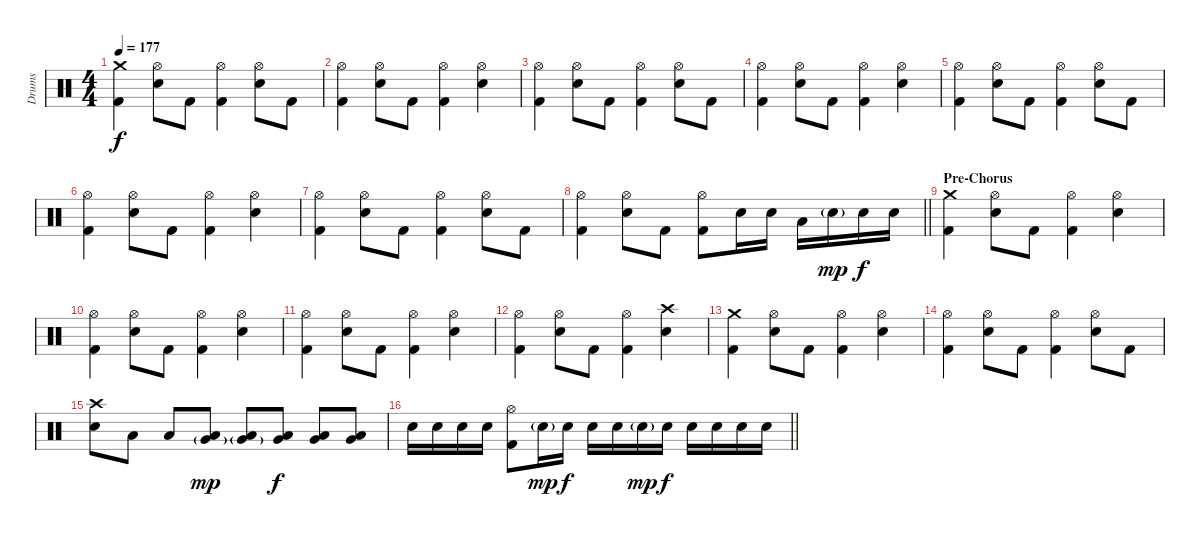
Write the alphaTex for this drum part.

\track ("Drums" "Drums") {instrument percussion}
\staff {score}
\articulation defaults
\ts (4 4)
\tempo 177
\clef neutral
\ks c
("Crash medium (hit)" "Kick (hit) 2").4{dy f} ("Hi-Hat (open)" "Electric Snare (hit)").8 "Kick (hit) 2".8 ("Hi-Hat (open)" "Kick (hit) 2").4 ("Hi-Hat (open)" "Electric Snare (hit)").8 "Kick (hit) 2".8 |
("Hi-Hat (open)" "Kick (hit) 2").4 ("Hi-Hat (open)" "Electric Snare (hit)").8 "Kick (hit) 2".8 ("Hi-Hat (open)" "Kick (hit) 2").4 ("Hi-Hat (open)" "Electric Snare (hit)").4 |
("Hi-Hat (open)" "Kick (hit) 2").4 ("Hi-Hat (open)" "Electric Snare (hit)").8 "Kick (hit) 2".8 ("Hi-Hat (open)" "Kick (hit) 2").4 ("Hi-Hat (open)" "Electric Snare (hit)").8 "Kick (hit) 2".8 |
("Hi-Hat (open)" "Kick (hit) 2").4 ("Hi-Hat (open)" "Electric Snare (hit)").8 "Kick (hit) 2".8 ("Hi-Hat (open)" "Kick (hit) 2").4 ("Hi-Hat (open)" "Electric Snare (hit)").4 |
("Hi-Hat (open)" "Kick (hit) 2").4 ("Hi-Hat (open)" "Electric Snare (hit)").8 "Kick (hit) 2".8 ("Hi-Hat (open)" "Kick (hit) 2").4 ("Hi-Hat (open)" "Electric Snare (hit)").8 "Kick (hit) 2".8 |
("Hi-Hat (open)" "Kick (hit) 2").4 ("Hi-Hat (open)" "Electric Snare (hit)").8 "Kick (hit) 2".8 ("Hi-Hat (open)" "Kick (hit) 2").4 ("Hi-Hat (open)" "Electric Snare (hit)").4 |
("Hi-Hat (open)" "Kick (hit) 2").4 ("Hi-Hat (open)" "Electric Snare (hit)").8 "Kick (hit) 2".8 ("Hi-Hat (open)" "Kick (hit) 2").4 ("Hi-Hat (open)" "Electric Snare (hit)").8 "Kick (hit) 2".8 |
\barLineRight lightlight
("Hi-Hat (open)" "Kick (hit) 2").4 ("Hi-Hat (open)" "Electric Snare (hit)").8 "Kick (hit) 2".8 ("Hi-Hat (open)" "Kick (hit) 2").8 "Electric Snare (hit)".16 "Electric Snare (hit)".16 "Low Tom (hit)".16 "Electric Snare (hit)"{g}.16{dy mp} "Electric Snare (hit)".16{dy f} "Electric Snare (hit)".16 |
\section ("" "Pre-Chorus")
("Crash medium (hit)" "Kick (hit) 2").4 ("Hi-Hat (open)" "Electric Snare (hit)").8 "Kick (hit) 2".8 ("Hi-Hat (open)" "Kick (hit) 2").4 ("Hi-Hat (open)" "Electric Snare (hit)").4 |
("Hi-Hat (open)" "Kick (hit) 2").4 ("Hi-Hat (open)" "Electric Snare (hit)").8 "Kick (hit) 2".8 ("Hi-Hat (open)" "Kick (hit) 2").4 ("Hi-Hat (open)" "Electric Snare (hit)").4 |
("Hi-Hat (open)" "Kick (hit) 2").4 ("Hi-Hat (open)" "Electric Snare (hit)").8 "Kick (hit) 2".8 ("Hi-Hat (open)" "Kick (hit) 2").4 ("Hi-Hat (open)" "Electric Snare (hit)").4 |
("Hi-Hat (open)" "Kick (hit) 2").4 ("Hi-Hat (open)" "Electric Snare (hit)").8 "Kick (hit) 2".8 ("Hi-Hat (open)" "Kick (hit) 2").4 ("Crash high (hit)" "Electric Snare (hit)").4 |
("Crash medium (hit)" "Kick (hit) 2").4 ("Hi-Hat (open)" "Electric Snare (hit)").8 "Kick (hit) 2".8 ("Hi-Hat (open)" "Kick (hit) 2").4 ("Hi-Hat (open)" "Electric Snare (hit)").4 |
("Hi-Hat (open)" "Kick (hit) 2").4 ("Hi-Hat (open)" "Electric Snare (hit)").8 "Kick (hit) 2".8 ("Hi-Hat (open)" "Kick (hit) 2").4 ("Hi-Hat (open)" "Electric Snare (hit)").8 "Kick (hit) 2".8 |
("Crash high (hit)" "Electric Snare (hit)").8 "Low Floor Tom (hit)".8 "Low Floor Tom (hit)".8 ("Very Low Tom (hit)"{g} "Low Floor Tom (hit)").8{dy mp} ("Very Low Tom (hit)"{g} "Low Floor Tom (hit)").8 ("Very Low Tom (hit)" "Low Floor Tom (hit)").8{dy f} ("Very Low Tom (hit)" "Low Tom (hit)").8 ("Very Low Tom (hit)" "Low Tom (hit)").8 |
\barLineRight lightlight "Electric Snare (hit)".16 "Electric Snare (hit)".16 "Electric Snare (hit)".16 "Electric Snare (hit)".16
("Hi-Hat (open)" "Kick (hit) 2").8 "Electric Snare (hit)"{g}.16{dy mp} "Electric Snare (hit)".16{dy f} "Electric Snare (hit)".16 "Electric Snare (hit)".16 "Electric Snare (hit)"{g}.16{dy mp} "Electric Snare (hit)".16{dy f} "Electric Snare (hit)".16 "Electric Snare (hit)".16 "Electric Snare (hit)".16 "Electric Snare (hit)".16
